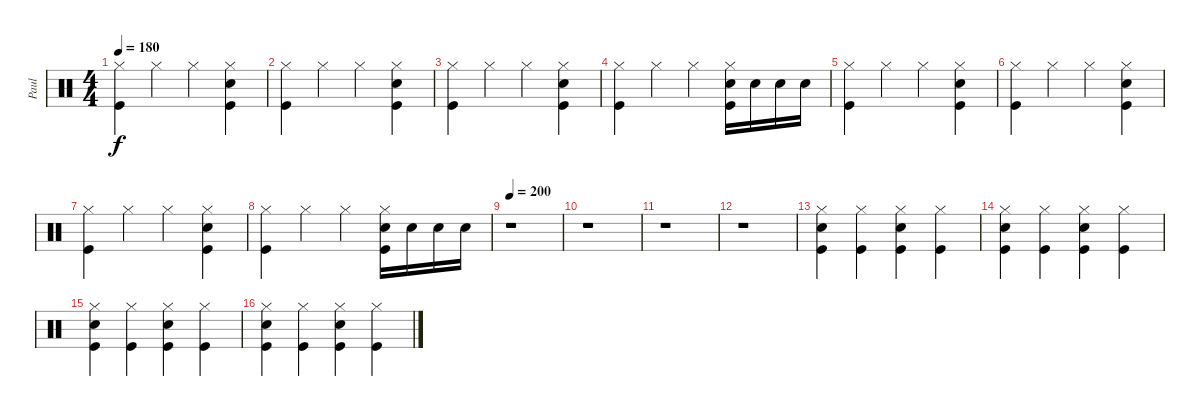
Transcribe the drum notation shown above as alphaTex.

\track ("Paul" "Paul") {instrument percussion}
\staff {score}
\articulation defaults
\ts (4 4)
\tempo 180
\clef neutral
\ks c
("Hi-Hat (closed)" "Kick (hit)").4{dy f} "Hi-Hat (closed)".4 "Hi-Hat (closed)".4 ("Hi-Hat (closed)" "Snare (hit) 2" "Kick (hit)").4 |
("Hi-Hat (closed)" "Kick (hit)").4 "Hi-Hat (closed)".4 "Hi-Hat (closed)".4 ("Hi-Hat (closed)" "Snare (hit) 2" "Kick (hit)").4 |
("Hi-Hat (closed)" "Kick (hit)").4 "Hi-Hat (closed)".4 "Hi-Hat (closed)".4 ("Hi-Hat (closed)" "Snare (hit) 2" "Kick (hit)").4 |
("Hi-Hat (closed)" "Kick (hit)").4 "Hi-Hat (closed)".4 "Hi-Hat (closed)".4 ("Snare (hit) 2" "Hi-Hat (closed)" "Kick (hit)").16 "Snare (hit) 2".16 "Snare (hit) 2".16 "Snare (hit) 2".16 |
("Hi-Hat (closed)" "Kick (hit)").4 "Hi-Hat (closed)".4 "Hi-Hat (closed)".4 ("Hi-Hat (closed)" "Snare (hit) 2" "Kick (hit)").4 |
("Hi-Hat (closed)" "Kick (hit)").4 "Hi-Hat (closed)".4 "Hi-Hat (closed)".4 ("Hi-Hat (closed)" "Snare (hit) 2" "Kick (hit)").4 |
("Hi-Hat (closed)" "Kick (hit)").4 "Hi-Hat (closed)".4 "Hi-Hat (closed)".4 ("Hi-Hat (closed)" "Snare (hit) 2" "Kick (hit)").4 |
("Hi-Hat (closed)" "Kick (hit)").4 "Hi-Hat (closed)".4 "Hi-Hat (closed)".4 ("Snare (hit) 2" "Hi-Hat (closed)" "Kick (hit)").16 "Snare (hit) 2".16 "Snare (hit) 2".16 "Snare (hit) 2".16 |
\tempo 200
r.1 |
r.1 |
r.1 |
r.1 |
("Hi-Hat (closed)" "Snare (hit) 2" "Kick (hit)").4 ("Hi-Hat (closed)" "Kick (hit)").4 ("Hi-Hat (closed)" "Snare (hit) 2" "Kick (hit)").4 ("Hi-Hat (closed)" "Kick (hit)").4 |
("Hi-Hat (closed)" "Snare (hit) 2" "Kick (hit)").4 ("Hi-Hat (closed)" "Kick (hit)").4 ("Hi-Hat (closed)" "Snare (hit) 2" "Kick (hit)").4 ("Hi-Hat (closed)" "Kick (hit)").4 |
("Hi-Hat (closed)" "Snare (hit) 2" "Kick (hit)").4 ("Hi-Hat (closed)" "Kick (hit)").4 ("Hi-Hat (closed)" "Snare (hit) 2" "Kick (hit)").4 ("Hi-Hat (closed)" "Kick (hit)").4 |
("Hi-Hat (closed)" "Snare (hit) 2" "Kick (hit)").4 ("Hi-Hat (closed)" "Kick (hit)").4 ("Hi-Hat (closed)" "Snare (hit) 2" "Kick (hit)").4 ("Hi-Hat (closed)" "Kick (hit)").4
